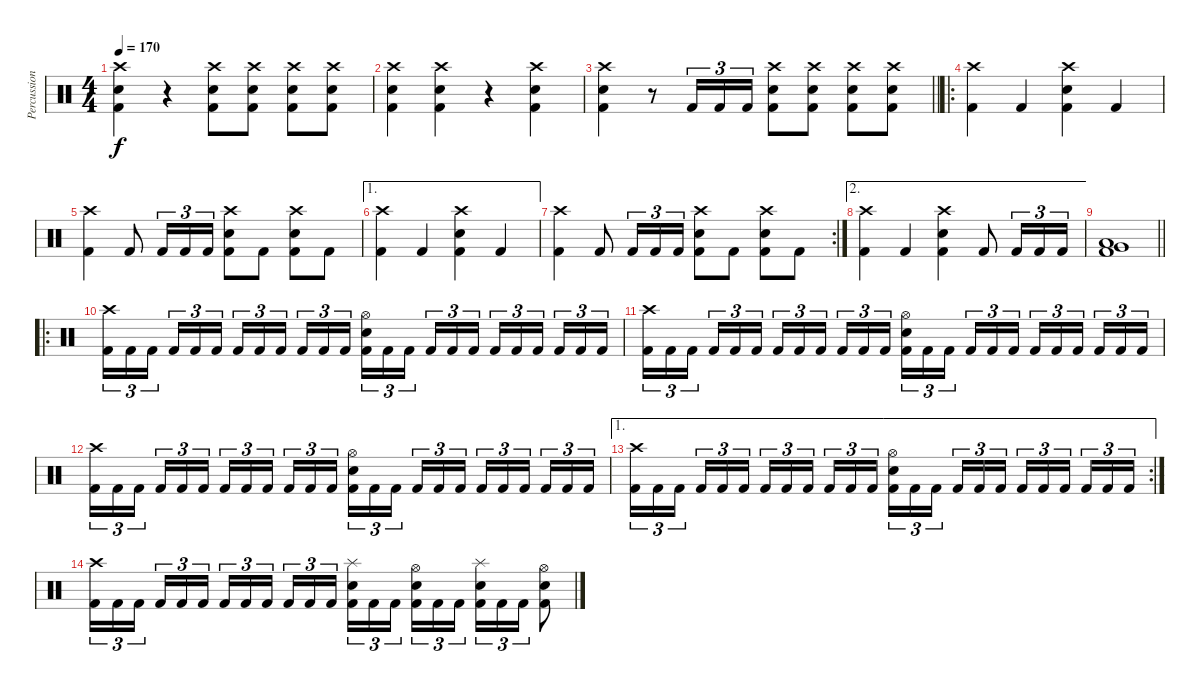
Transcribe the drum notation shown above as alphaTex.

\track ("Percussion" "Percussion") {instrument percussion}
\staff {score}
\articulation defaults
\ts (4 4)
\tempo 170
\clef neutral
\ks c
("Crash high (hit)" "Electric Snare (hit)" "Kick (hit) 2").4{dy f} r.4 ("Crash high (hit)" "Electric Snare (hit)" "Kick (hit) 2").8 ("Crash high (hit)" "Electric Snare (hit)" "Kick (hit) 2").8 ("Crash high (hit)" "Electric Snare (hit)" "Kick (hit) 2").8 ("Crash high (hit)" "Electric Snare (hit)" "Kick (hit) 2").8 |
("Crash high (hit)" "Electric Snare (hit)" "Kick (hit) 2").4 ("Crash high (hit)" "Electric Snare (hit)" "Kick (hit) 2").4 r.4 ("Crash high (hit)" "Electric Snare (hit)" "Kick (hit) 2").4 |
\barLineRight lightlight
("Crash high (hit)" "Electric Snare (hit)" "Kick (hit) 2").4 r.8 "Kick (hit) 2".16{tu (3 2)} "Kick (hit) 2".16{tu (3 2)} "Kick (hit) 2".16{tu (3 2)} ("Crash high (hit)" "Electric Snare (hit)" "Kick (hit) 2").8 ("Crash high (hit)" "Electric Snare (hit)" "Kick (hit) 2").8 ("Crash high (hit)" "Electric Snare (hit)" "Kick (hit) 2").8 ("Crash high (hit)" "Electric Snare (hit)" "Kick (hit) 2").8 |
\ro
\section ("" "")
("Crash high (hit)" "Kick (hit) 2").4 "Kick (hit) 2".4 ("Crash high (hit)" "Electric Snare (hit)" "Kick (hit) 2").4 "Kick (hit) 2".4 |
("Crash high (hit)" "Kick (hit) 2").4 "Kick (hit) 2".8 "Kick (hit) 2".16{tu (3 2)} "Kick (hit) 2".16{tu (3 2)} "Kick (hit) 2".16{tu (3 2)} ("Crash high (hit)" "Electric Snare (hit)" "Kick (hit) 2").8 "Kick (hit) 2".8 ("Crash high (hit)" "Electric Snare (hit)" "Kick (hit) 2").8 "Kick (hit) 2".8 |
\ae 1
("Crash high (hit)" "Kick (hit) 2").4 "Kick (hit) 2".4 ("Crash high (hit)" "Electric Snare (hit)" "Kick (hit) 2").4 "Kick (hit) 2".4 |
\rc 2
("Crash high (hit)" "Kick (hit) 2").4 "Kick (hit) 2".8 "Kick (hit) 2".16{tu (3 2)} "Kick (hit) 2".16{tu (3 2)} "Kick (hit) 2".16{tu (3 2)} ("Crash high (hit)" "Electric Snare (hit)" "Kick (hit) 2").8 "Kick (hit) 2".8 ("Crash high (hit)" "Electric Snare (hit)" "Kick (hit) 2").8 "Kick (hit) 2".8 |
\ae 2
("Crash high (hit)" "Kick (hit) 2").4 "Kick (hit) 2".4 ("Crash high (hit)" "Electric Snare (hit)" "Kick (hit) 2").4 "Kick (hit) 2".8 "Kick (hit) 2".16{tu (3 2)} "Kick (hit) 2".16{tu (3 2)} "Kick (hit) 2".16{tu (3 2)} |
\barLineRight lightlight
("Very Low Tom (hit)" "Low Tom (hit)" "Kick (hit) 2").1 |
\ro
\section ("" "")
("Crash high (hit)" "Kick (hit) 2").16{tu (3 2)} "Kick (hit) 2".16{tu (3 2)} "Kick (hit) 2".16{tu (3 2) beam splitsecondary} "Kick (hit) 2".16{tu (3 2)} "Kick (hit) 2".16{tu (3 2)} "Kick (hit) 2".16{tu (3 2)} "Kick (hit) 2".16{tu (3 2)} "Kick (hit) 2".16{tu (3 2)} "Kick (hit) 2".16{tu (3 2) beam splitsecondary} "Kick (hit) 2".16{tu (3 2)} "Kick (hit) 2".16{tu (3 2)} "Kick (hit) 2".16{tu (3 2)} ("Hi-Hat (open)" "Electric Snare (hit)" "Kick (hit) 2").16{tu (3 2)} "Kick (hit) 2".16{tu (3 2)} "Kick (hit) 2".16{tu (3 2) beam splitsecondary} "Kick (hit) 2".16{tu (3 2)} "Kick (hit) 2".16{tu (3 2)} "Kick (hit) 2".16{tu (3 2)} "Kick (hit) 2".16{tu (3 2)} "Kick (hit) 2".16{tu (3 2)} "Kick (hit) 2".16{tu (3 2) beam splitsecondary} "Kick (hit) 2".16{tu (3 2)} "Kick (hit) 2".16{tu (3 2)} "Kick (hit) 2".16{tu (3 2)} |
("Crash high (hit)" "Kick (hit) 2").16{tu (3 2)} "Kick (hit) 2".16{tu (3 2)} "Kick (hit) 2".16{tu (3 2) beam splitsecondary} "Kick (hit) 2".16{tu (3 2)} "Kick (hit) 2".16{tu (3 2)} "Kick (hit) 2".16{tu (3 2)} "Kick (hit) 2".16{tu (3 2)} "Kick (hit) 2".16{tu (3 2)} "Kick (hit) 2".16{tu (3 2) beam splitsecondary} "Kick (hit) 2".16{tu (3 2)} "Kick (hit) 2".16{tu (3 2)} "Kick (hit) 2".16{tu (3 2)} ("Hi-Hat (open)" "Electric Snare (hit)" "Kick (hit) 2").16{tu (3 2)} "Kick (hit) 2".16{tu (3 2)} "Kick (hit) 2".16{tu (3 2) beam splitsecondary} "Kick (hit) 2".16{tu (3 2)} "Kick (hit) 2".16{tu (3 2)} "Kick (hit) 2".16{tu (3 2)} "Kick (hit) 2".16{tu (3 2)} "Kick (hit) 2".16{tu (3 2)} "Kick (hit) 2".16{tu (3 2) beam splitsecondary} "Kick (hit) 2".16{tu (3 2)} "Kick (hit) 2".16{tu (3 2)} "Kick (hit) 2".16{tu (3 2)} |
("Crash high (hit)" "Kick (hit) 2").16{tu (3 2)} "Kick (hit) 2".16{tu (3 2)} "Kick (hit) 2".16{tu (3 2) beam splitsecondary} "Kick (hit) 2".16{tu (3 2)} "Kick (hit) 2".16{tu (3 2)} "Kick (hit) 2".16{tu (3 2)} "Kick (hit) 2".16{tu (3 2)} "Kick (hit) 2".16{tu (3 2)} "Kick (hit) 2".16{tu (3 2) beam splitsecondary} "Kick (hit) 2".16{tu (3 2)} "Kick (hit) 2".16{tu (3 2)} "Kick (hit) 2".16{tu (3 2)} ("Hi-Hat (open)" "Electric Snare (hit)" "Kick (hit) 2").16{tu (3 2)} "Kick (hit) 2".16{tu (3 2)} "Kick (hit) 2".16{tu (3 2) beam splitsecondary} "Kick (hit) 2".16{tu (3 2)} "Kick (hit) 2".16{tu (3 2)} "Kick (hit) 2".16{tu (3 2)} "Kick (hit) 2".16{tu (3 2)} "Kick (hit) 2".16{tu (3 2)} "Kick (hit) 2".16{tu (3 2) beam splitsecondary} "Kick (hit) 2".16{tu (3 2)} "Kick (hit) 2".16{tu (3 2)} "Kick (hit) 2".16{tu (3 2)} |
\ae 1
\rc 2
("Crash high (hit)" "Kick (hit) 2").16{tu (3 2)} "Kick (hit) 2".16{tu (3 2)} "Kick (hit) 2".16{tu (3 2) beam splitsecondary} "Kick (hit) 2".16{tu (3 2)} "Kick (hit) 2".16{tu (3 2)} "Kick (hit) 2".16{tu (3 2)} "Kick (hit) 2".16{tu (3 2)} "Kick (hit) 2".16{tu (3 2)} "Kick (hit) 2".16{tu (3 2) beam splitsecondary} "Kick (hit) 2".16{tu (3 2)} "Kick (hit) 2".16{tu (3 2)} "Kick (hit) 2".16{tu (3 2)} ("Hi-Hat (open)" "Electric Snare (hit)" "Kick (hit) 2").16{tu (3 2)} "Kick (hit) 2".16{tu (3 2)} "Kick (hit) 2".16{tu (3 2) beam splitsecondary} "Kick (hit) 2".16{tu (3 2)} "Kick (hit) 2".16{tu (3 2)} "Kick (hit) 2".16{tu (3 2)} "Kick (hit) 2".16{tu (3 2)} "Kick (hit) 2".16{tu (3 2)} "Kick (hit) 2".16{tu (3 2) beam splitsecondary} "Kick (hit) 2".16{tu (3 2)} "Kick (hit) 2".16{tu (3 2)} "Kick (hit) 2".16{tu (3 2)} |
("Crash high (hit)" "Kick (hit) 2").16{tu (3 2)} "Kick (hit) 2".16{tu (3 2)} "Kick (hit) 2".16{tu (3 2) beam splitsecondary} "Kick (hit) 2".16{tu (3 2)} "Kick (hit) 2".16{tu (3 2)} "Kick (hit) 2".16{tu (3 2)} "Kick (hit) 2".16{tu (3 2)} "Kick (hit) 2".16{tu (3 2)} "Kick (hit) 2".16{tu (3 2) beam splitsecondary} "Kick (hit) 2".16{tu (3 2)} "Kick (hit) 2".16{tu (3 2)} "Kick (hit) 2".16{tu (3 2)} ("Splash (hit)" "Electric Snare (hit)" "Kick (hit) 2").16{tu (3 2)} "Kick (hit) 2".16{tu (3 2)} "Kick (hit) 2".16{tu (3 2) beam splitsecondary} ("Hi-Hat (open)" "Electric Snare (hit)" "Kick (hit) 2").16{tu (3 2)} "Kick (hit) 2".16{tu (3 2)} "Kick (hit) 2".16{tu (3 2)} ("Splash (hit)" "Electric Snare (hit)" "Kick (hit) 2").16{tu (3 2)} "Kick (hit) 2".16{tu (3 2)} "Kick (hit) 2".16{tu (3 2)} ("Hi-Hat (open)" "Electric Snare (hit)" "Kick (hit) 2").8
